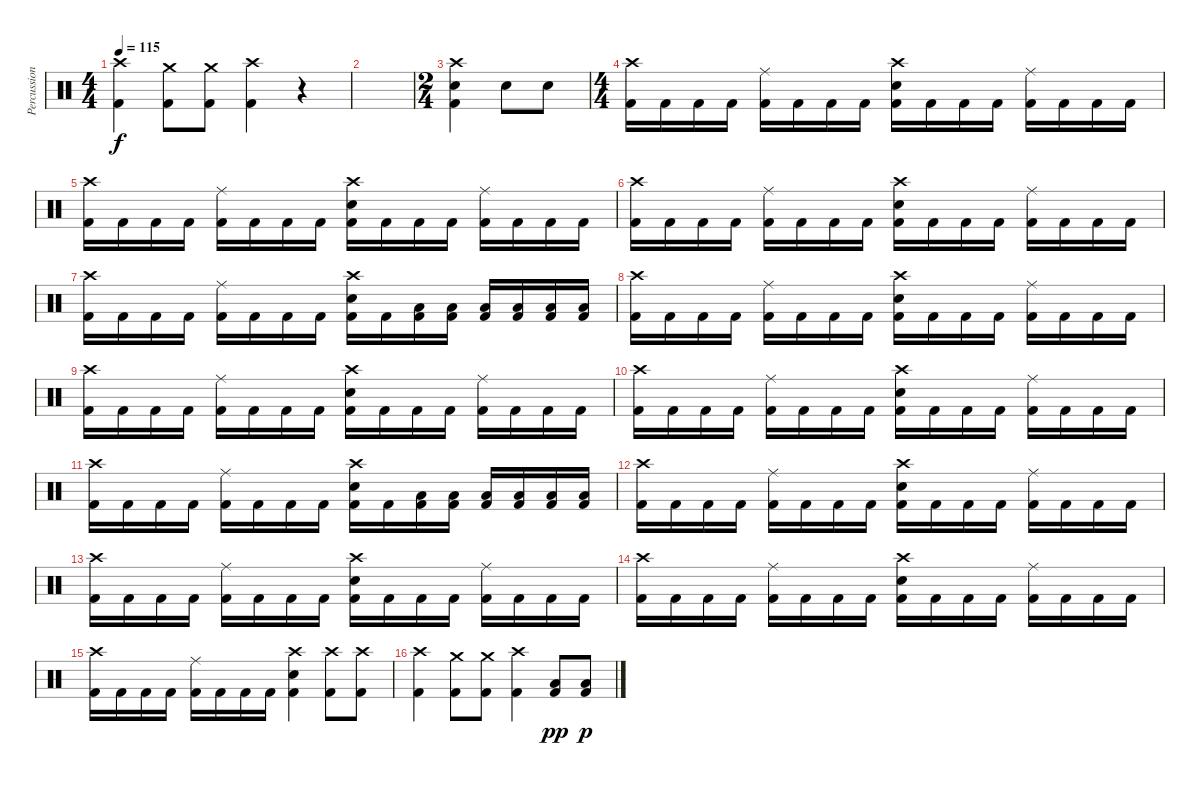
\track ("Percussion" "Percussion") {instrument percussion}
\staff {score}
\articulation defaults
\ts (4 4)
\tempo 115
\clef neutral
\ks c
("Crash high (hit)" "Kick (hit) 2").4{dy f} ("Crash medium (hit)" "Kick (hit) 2").8 ("Crash medium (hit)" "Kick (hit) 2").8 ("Crash high (hit)" "Kick (hit) 2").4 r.4 |
|
\ts (2 4)
("Crash high (hit)" "Electric Snare (hit)" "Kick (hit) 2").4 "Electric Snare (hit)".8 "Electric Snare (hit)".8 |
\ts (4 4)
("Crash high (hit)" "Kick (hit) 2").16 "Kick (hit) 2".16 "Kick (hit) 2".16 "Kick (hit) 2".16 ("Ride (middle)" "Kick (hit) 2").16 "Kick (hit) 2".16 "Kick (hit) 2".16 "Kick (hit) 2".16 ("Crash high (hit)" "Electric Snare (hit)" "Kick (hit) 2").16 "Kick (hit) 2".16 "Kick (hit) 2".16 "Kick (hit) 2".16 ("Ride (middle)" "Kick (hit) 2").16 "Kick (hit) 2".16 "Kick (hit) 2".16 "Kick (hit) 2".16 |
("Crash high (hit)" "Kick (hit) 2").16 "Kick (hit) 2".16 "Kick (hit) 2".16 "Kick (hit) 2".16 ("Ride (middle)" "Kick (hit) 2").16 "Kick (hit) 2".16 "Kick (hit) 2".16 "Kick (hit) 2".16 ("Crash high (hit)" "Electric Snare (hit)" "Kick (hit) 2").16 "Kick (hit) 2".16 "Kick (hit) 2".16 "Kick (hit) 2".16 ("Ride (middle)" "Kick (hit) 2").16 "Kick (hit) 2".16 "Kick (hit) 2".16 "Kick (hit) 2".16 |
("Crash high (hit)" "Kick (hit) 2").16 "Kick (hit) 2".16 "Kick (hit) 2".16 "Kick (hit) 2".16 ("Ride (middle)" "Kick (hit) 2").16 "Kick (hit) 2".16 "Kick (hit) 2".16 "Kick (hit) 2".16 ("Crash high (hit)" "Electric Snare (hit)" "Kick (hit) 2").16 "Kick (hit) 2".16 "Kick (hit) 2".16 "Kick (hit) 2".16 ("Ride (middle)" "Kick (hit) 2").16 "Kick (hit) 2".16 "Kick (hit) 2".16 "Kick (hit) 2".16 |
("Crash high (hit)" "Kick (hit) 2").16 "Kick (hit) 2".16 "Kick (hit) 2".16 "Kick (hit) 2".16 ("Ride (middle)" "Kick (hit) 2").16 "Kick (hit) 2".16 "Kick (hit) 2".16 "Kick (hit) 2".16 ("Crash high (hit)" "Electric Snare (hit)" "Kick (hit) 2").16 "Kick (hit) 2".16 ("Low Floor Tom (hit)" "Kick (hit) 2").16 ("Low Floor Tom (hit)" "Kick (hit) 2").16 ("Low Floor Tom (hit)" "Kick (hit) 2").16 ("Low Floor Tom (hit)" "Kick (hit) 2").16 ("Low Floor Tom (hit)" "Kick (hit) 2").16 ("Low Floor Tom (hit)" "Kick (hit) 2").16 |
("Crash high (hit)" "Kick (hit) 2").16 "Kick (hit) 2".16 "Kick (hit) 2".16 "Kick (hit) 2".16 ("Ride (middle)" "Kick (hit) 2").16 "Kick (hit) 2".16 "Kick (hit) 2".16 "Kick (hit) 2".16 ("Crash high (hit)" "Electric Snare (hit)" "Kick (hit) 2").16 "Kick (hit) 2".16 "Kick (hit) 2".16 "Kick (hit) 2".16 ("Ride (middle)" "Kick (hit) 2").16 "Kick (hit) 2".16 "Kick (hit) 2".16 "Kick (hit) 2".16 |
("Crash high (hit)" "Kick (hit) 2").16 "Kick (hit) 2".16 "Kick (hit) 2".16 "Kick (hit) 2".16 ("Ride (middle)" "Kick (hit) 2").16 "Kick (hit) 2".16 "Kick (hit) 2".16 "Kick (hit) 2".16 ("Crash high (hit)" "Electric Snare (hit)" "Kick (hit) 2").16 "Kick (hit) 2".16 "Kick (hit) 2".16 "Kick (hit) 2".16 ("Ride (middle)" "Kick (hit) 2").16 "Kick (hit) 2".16 "Kick (hit) 2".16 "Kick (hit) 2".16 |
("Crash high (hit)" "Kick (hit) 2").16 "Kick (hit) 2".16 "Kick (hit) 2".16 "Kick (hit) 2".16 ("Ride (middle)" "Kick (hit) 2").16 "Kick (hit) 2".16 "Kick (hit) 2".16 "Kick (hit) 2".16 ("Crash high (hit)" "Electric Snare (hit)" "Kick (hit) 2").16 "Kick (hit) 2".16 "Kick (hit) 2".16 "Kick (hit) 2".16 ("Ride (middle)" "Kick (hit) 2").16 "Kick (hit) 2".16 "Kick (hit) 2".16 "Kick (hit) 2".16 |
("Crash high (hit)" "Kick (hit) 2").16 "Kick (hit) 2".16 "Kick (hit) 2".16 "Kick (hit) 2".16 ("Ride (middle)" "Kick (hit) 2").16 "Kick (hit) 2".16 "Kick (hit) 2".16 "Kick (hit) 2".16 ("Crash high (hit)" "Electric Snare (hit)" "Kick (hit) 2").16 "Kick (hit) 2".16 ("Low Floor Tom (hit)" "Kick (hit) 2").16 ("Low Floor Tom (hit)" "Kick (hit) 2").16 ("Low Floor Tom (hit)" "Kick (hit) 2").16 ("Low Floor Tom (hit)" "Kick (hit) 2").16 ("Low Floor Tom (hit)" "Kick (hit) 2").16 ("Low Floor Tom (hit)" "Kick (hit) 2").16 |
("Crash high (hit)" "Kick (hit) 2").16 "Kick (hit) 2".16 "Kick (hit) 2".16 "Kick (hit) 2".16 ("Ride (middle)" "Kick (hit) 2").16 "Kick (hit) 2".16 "Kick (hit) 2".16 "Kick (hit) 2".16 ("Crash high (hit)" "Electric Snare (hit)" "Kick (hit) 2").16 "Kick (hit) 2".16 "Kick (hit) 2".16 "Kick (hit) 2".16 ("Ride (middle)" "Kick (hit) 2").16 "Kick (hit) 2".16 "Kick (hit) 2".16 "Kick (hit) 2".16 |
("Crash high (hit)" "Kick (hit) 2").16 "Kick (hit) 2".16 "Kick (hit) 2".16 "Kick (hit) 2".16 ("Ride (middle)" "Kick (hit) 2").16 "Kick (hit) 2".16 "Kick (hit) 2".16 "Kick (hit) 2".16 ("Crash high (hit)" "Electric Snare (hit)" "Kick (hit) 2").16 "Kick (hit) 2".16 "Kick (hit) 2".16 "Kick (hit) 2".16 ("Ride (middle)" "Kick (hit) 2").16 "Kick (hit) 2".16 "Kick (hit) 2".16 "Kick (hit) 2".16 |
("Crash high (hit)" "Kick (hit) 2").16 "Kick (hit) 2".16 "Kick (hit) 2".16 "Kick (hit) 2".16 ("Ride (middle)" "Kick (hit) 2").16 "Kick (hit) 2".16 "Kick (hit) 2".16 "Kick (hit) 2".16 ("Crash high (hit)" "Electric Snare (hit)" "Kick (hit) 2").16 "Kick (hit) 2".16 "Kick (hit) 2".16 "Kick (hit) 2".16 ("Ride (middle)" "Kick (hit) 2").16 "Kick (hit) 2".16 "Kick (hit) 2".16 "Kick (hit) 2".16 |
("Crash high (hit)" "Kick (hit) 2").16 "Kick (hit) 2".16 "Kick (hit) 2".16 "Kick (hit) 2".16 ("Ride (middle)" "Kick (hit) 2").16 "Kick (hit) 2".16 "Kick (hit) 2".16 "Kick (hit) 2".16 ("Crash high (hit)" "Electric Snare (hit)" "Kick (hit) 2").4 ("Crash high (hit)" "Kick (hit) 2").8 ("Crash high (hit)" "Kick (hit) 2").8 |
("Crash high (hit)" "Kick (hit) 2").4 ("Crash medium (hit)" "Kick (hit) 2").8 ("Crash medium (hit)" "Kick (hit) 2").8 ("Crash high (hit)" "Kick (hit) 2").4 ("Low Floor Tom (hit)" "Kick (hit) 2").8{dy pp} ("Low Floor Tom (hit)" "Kick (hit) 2").8{dy p}
